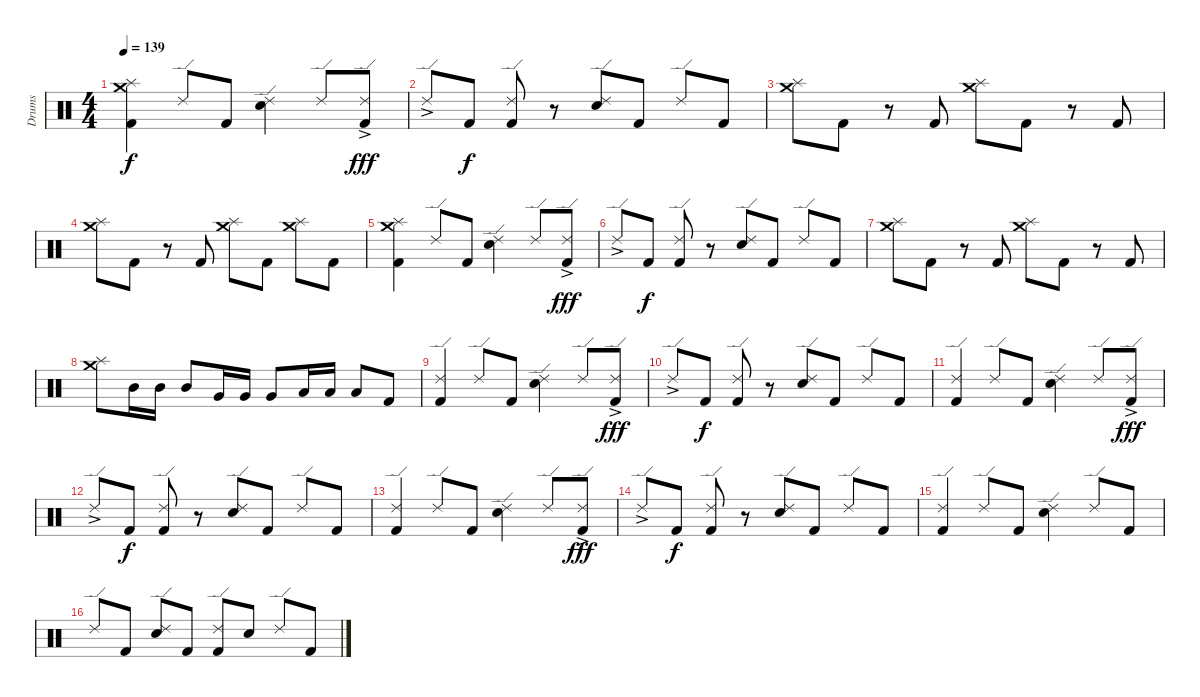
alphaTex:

\track ("Drums" "Drums") {instrument percussion}
\staff {score}
\articulation defaults
\ts (4 4)
\tempo 139
\clef neutral
\ks c
("Crash medium (hit)" "Splash (hit)" "Kick (hit) 2").4{dy f} "Ride (edge) 2".8 "Kick (hit) 2".8 ("Ride (edge) 2" "Electric Snare (hit)").4 "Ride (edge) 2".8 ("Ride (edge) 2"{ac} "Kick (hit) 2").8{dy fff} |
"Ride (edge) 2"{ac}.8 "Kick (hit) 2".8{dy f} ("Ride (edge) 2" "Kick (hit) 2").8 r.8 ("Ride (edge) 2" "Electric Snare (hit)").8 "Kick (hit) 2".8 "Ride (edge) 2".8 "Kick (hit) 2".8 |
("Crash medium (hit)" "Splash (hit)").8 "Kick (hit) 2".8 r.8 "Kick (hit) 2".8 ("Crash medium (hit)" "Splash (hit)").8 "Kick (hit) 2".8 r.8 "Kick (hit) 2".8 |
("Crash medium (hit)" "Splash (hit)").8 "Kick (hit) 2".8 r.8 "Kick (hit) 2".8 ("Crash medium (hit)" "Splash (hit)").8 "Kick (hit) 2".8 ("Crash medium (hit)" "Splash (hit)").8 "Kick (hit) 2".8 |
("Crash medium (hit)" "Splash (hit)" "Kick (hit) 2").4 "Ride (edge) 2".8 "Kick (hit) 2".8 ("Ride (edge) 2" "Electric Snare (hit)").4 "Ride (edge) 2".8 ("Ride (edge) 2"{ac} "Kick (hit) 2").8{dy fff} |
"Ride (edge) 2"{ac}.8 "Kick (hit) 2".8{dy f} ("Ride (edge) 2" "Kick (hit) 2").8 r.8 ("Ride (edge) 2" "Electric Snare (hit)").8 "Kick (hit) 2".8 "Ride (edge) 2".8 "Kick (hit) 2".8 |
("Crash medium (hit)" "Splash (hit)").8 "Kick (hit) 2".8 r.8 "Kick (hit) 2".8 ("Crash medium (hit)" "Splash (hit)").8 "Kick (hit) 2".8 r.8 "Kick (hit) 2".8 |
("Crash medium (hit)" "Splash (hit)").8 "Mid Tom (hit)".16 "Mid Tom (hit)".16 "Mid Tom (hit)".8 "Very Low Tom (hit)".16 "Very Low Tom (hit)".16 "Very Low Tom (hit)".8 "Low Floor Tom (hit)".16 "Low Floor Tom (hit)".16 "Low Floor Tom (hit)".8 "Kick (hit) 2".8 |
("Ride (edge) 2" "Kick (hit) 2").4 "Ride (edge) 2".8 "Kick (hit) 2".8 ("Ride (edge) 2" "Electric Snare (hit)").4 "Ride (edge) 2".8 ("Ride (edge) 2"{ac} "Kick (hit) 2").8{dy fff} |
"Ride (edge) 2"{ac}.8 "Kick (hit) 2".8{dy f} ("Ride (edge) 2" "Kick (hit) 2").8 r.8 ("Ride (edge) 2" "Electric Snare (hit)").8 "Kick (hit) 2".8 "Ride (edge) 2".8 "Kick (hit) 2".8 |
("Ride (edge) 2" "Kick (hit) 2").4 "Ride (edge) 2".8 "Kick (hit) 2".8 ("Ride (edge) 2" "Electric Snare (hit)").4 "Ride (edge) 2".8 ("Ride (edge) 2"{ac} "Kick (hit) 2").8{dy fff} |
"Ride (edge) 2"{ac}.8 "Kick (hit) 2".8{dy f} ("Ride (edge) 2" "Kick (hit) 2").8 r.8 ("Ride (edge) 2" "Electric Snare (hit)").8 "Kick (hit) 2".8 "Ride (edge) 2".8 "Kick (hit) 2".8 |
("Ride (edge) 2" "Kick (hit) 2").4 "Ride (edge) 2".8 "Kick (hit) 2".8 ("Ride (edge) 2" "Electric Snare (hit)").4 "Ride (edge) 2".8 ("Ride (edge) 2"{ac} "Kick (hit) 2").8{dy fff} |
"Ride (edge) 2"{ac}.8 "Kick (hit) 2".8{dy f} ("Ride (edge) 2" "Kick (hit) 2").8 r.8 ("Ride (edge) 2" "Electric Snare (hit)").8 "Kick (hit) 2".8 "Ride (edge) 2".8 "Kick (hit) 2".8 |
("Ride (edge) 2" "Kick (hit) 2").4 "Ride (edge) 2".8 "Kick (hit) 2".8 ("Ride (edge) 2" "Electric Snare (hit)").4 "Ride (edge) 2".8 "Kick (hit) 2".8 |
"Ride (edge) 2".8 "Kick (hit) 2".8 ("Ride (edge) 2" "Electric Snare (hit)").8 "Kick (hit) 2".8 ("Ride (edge) 2" "Kick (hit) 2").8 "Electric Snare (hit)".8 "Ride (edge) 2".8 "Kick (hit) 2".8
